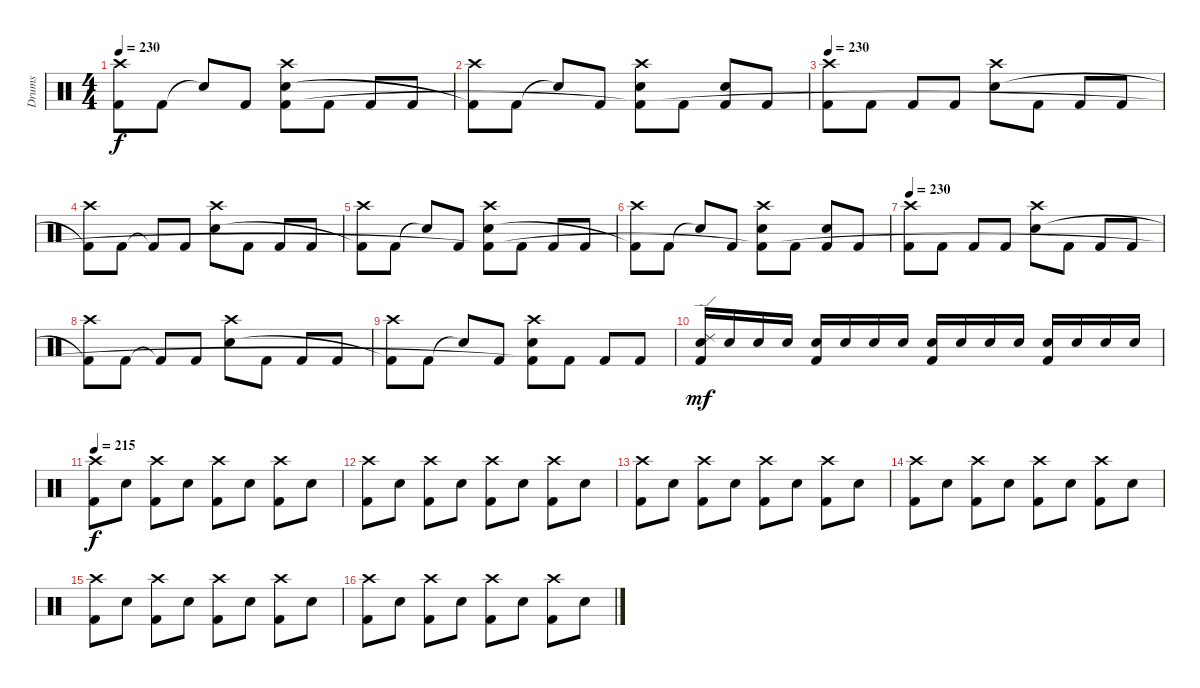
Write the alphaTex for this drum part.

\track ("Drums" "Drums") {instrument percussion}
\staff {score}
\articulation defaults
\ts (4 4)
\tempo 230
\clef neutral
\ks c
("Crash high (hit)" "Kick (hit) 2"{t}).8{dy f} "Kick (hit) 2".8 "Snare (hit)"{t}.8 "Kick (hit) 2".8 ("Crash high (hit)" "Electric Snare (hit)" "Kick (hit) 2"{t}).8 "Kick (hit) 2".8 "Kick (hit) 2".8 "Kick (hit) 2".8 |
("Crash high (hit)" "Kick (hit) 2"{t}).8 "Kick (hit) 2".8 "Snare (hit)"{t}.8 "Kick (hit) 2".8 ("Crash high (hit)" "Electric Snare (hit)" "Kick (hit) 2"{t}).8 "Kick (hit) 2".8 ("Electric Snare (hit)" "Kick (hit) 2").8 "Kick (hit) 2".8 |
\tempo 230
("Crash high (hit)" "Kick (hit) 2").8 "Kick (hit) 2".8 "Kick (hit) 2".8 "Kick (hit) 2".8 ("Crash high (hit)" "Electric Snare (hit)").8 "Kick (hit) 2".8 "Kick (hit) 2".8 "Kick (hit) 2".8 |
("Crash high (hit)" "Kick (hit) 2"{t}).8 "Kick (hit) 2".8 "Kick (hit) 2"{t}.8 "Kick (hit) 2".8 ("Crash high (hit)" "Electric Snare (hit)").8 "Kick (hit) 2".8 "Kick (hit) 2".8 "Kick (hit) 2".8 |
("Crash high (hit)" "Kick (hit) 2"{t}).8 "Kick (hit) 2".8 "Snare (hit)"{t}.8 "Kick (hit) 2".8 ("Crash high (hit)" "Electric Snare (hit)" "Kick (hit) 2"{t}).8 "Kick (hit) 2".8 "Kick (hit) 2".8 "Kick (hit) 2".8 |
("Crash high (hit)" "Kick (hit) 2"{t}).8 "Kick (hit) 2".8 "Snare (hit)"{t}.8 "Kick (hit) 2".8 ("Crash high (hit)" "Electric Snare (hit)" "Kick (hit) 2"{t}).8 "Kick (hit) 2".8 ("Electric Snare (hit)" "Kick (hit) 2").8 "Kick (hit) 2".8 |
\tempo 230
("Crash high (hit)" "Kick (hit) 2").8 "Kick (hit) 2".8 "Kick (hit) 2".8 "Kick (hit) 2".8 ("Crash high (hit)" "Electric Snare (hit)").8 "Kick (hit) 2".8 "Kick (hit) 2".8 "Kick (hit) 2".8 |
("Crash high (hit)" "Kick (hit) 2"{t}).8 "Kick (hit) 2".8 "Kick (hit) 2"{t}.8 "Kick (hit) 2".8 ("Crash high (hit)" "Electric Snare (hit)").8 "Kick (hit) 2".8 "Kick (hit) 2".8 "Kick (hit) 2".8 |
("Crash high (hit)" "Kick (hit) 2"{t}).8 "Kick (hit) 2".8 "Snare (hit)"{t}.8 "Kick (hit) 2".8 ("Crash high (hit)" "Electric Snare (hit)" "Kick (hit) 2"{t}).8 "Kick (hit) 2".8 "Kick (hit) 2".8 "Kick (hit) 2".8 |
("Ride (edge) 2" "Electric Snare (hit)" "Kick (hit) 2").16{dy mf} "Electric Snare (hit)".16 "Electric Snare (hit)".16 "Electric Snare (hit)".16 ("Electric Snare (hit)" "Kick (hit) 2").16 "Electric Snare (hit)".16 "Electric Snare (hit)".16 "Electric Snare (hit)".16 ("Electric Snare (hit)" "Kick (hit) 2").16 "Electric Snare (hit)".16 "Electric Snare (hit)".16 "Electric Snare (hit)".16 ("Electric Snare (hit)" "Kick (hit) 2").16 "Electric Snare (hit)".16 "Electric Snare (hit)".16 "Electric Snare (hit)".16 |
\tempo 215
("Crash high (hit)" "Kick (hit) 2").8{dy f} "Electric Snare (hit)".8 ("Crash high (hit)" "Kick (hit) 2").8 "Electric Snare (hit)".8 ("Crash high (hit)" "Kick (hit) 2").8 "Electric Snare (hit)".8 ("Crash high (hit)" "Kick (hit) 2").8 "Electric Snare (hit)".8 |
("Crash high (hit)" "Kick (hit) 2").8 "Electric Snare (hit)".8 ("Crash high (hit)" "Kick (hit) 2").8 "Electric Snare (hit)".8 ("Crash high (hit)" "Kick (hit) 2").8 "Electric Snare (hit)".8 ("Crash high (hit)" "Kick (hit) 2").8 "Electric Snare (hit)".8 |
("Crash high (hit)" "Kick (hit) 2").8 "Electric Snare (hit)".8 ("Crash high (hit)" "Kick (hit) 2").8 "Electric Snare (hit)".8 ("Crash high (hit)" "Kick (hit) 2").8 "Electric Snare (hit)".8 ("Crash high (hit)" "Kick (hit) 2").8 "Electric Snare (hit)".8 |
("Crash high (hit)" "Kick (hit) 2").8 "Electric Snare (hit)".8 ("Crash high (hit)" "Kick (hit) 2").8 "Electric Snare (hit)".8 ("Crash high (hit)" "Kick (hit) 2").8 "Electric Snare (hit)".8 ("Crash high (hit)" "Kick (hit) 2").8 "Electric Snare (hit)".8 |
("Crash high (hit)" "Kick (hit) 2").8 "Electric Snare (hit)".8 ("Crash high (hit)" "Kick (hit) 2").8 "Electric Snare (hit)".8 ("Crash high (hit)" "Kick (hit) 2").8 "Electric Snare (hit)".8 ("Crash high (hit)" "Kick (hit) 2").8 "Electric Snare (hit)".8 |
("Crash high (hit)" "Kick (hit) 2").8 "Electric Snare (hit)".8 ("Crash high (hit)" "Kick (hit) 2").8 "Electric Snare (hit)".8 ("Crash high (hit)" "Kick (hit) 2").8 "Electric Snare (hit)".8 ("Crash high (hit)" "Kick (hit) 2").8 "Electric Snare (hit)".8
